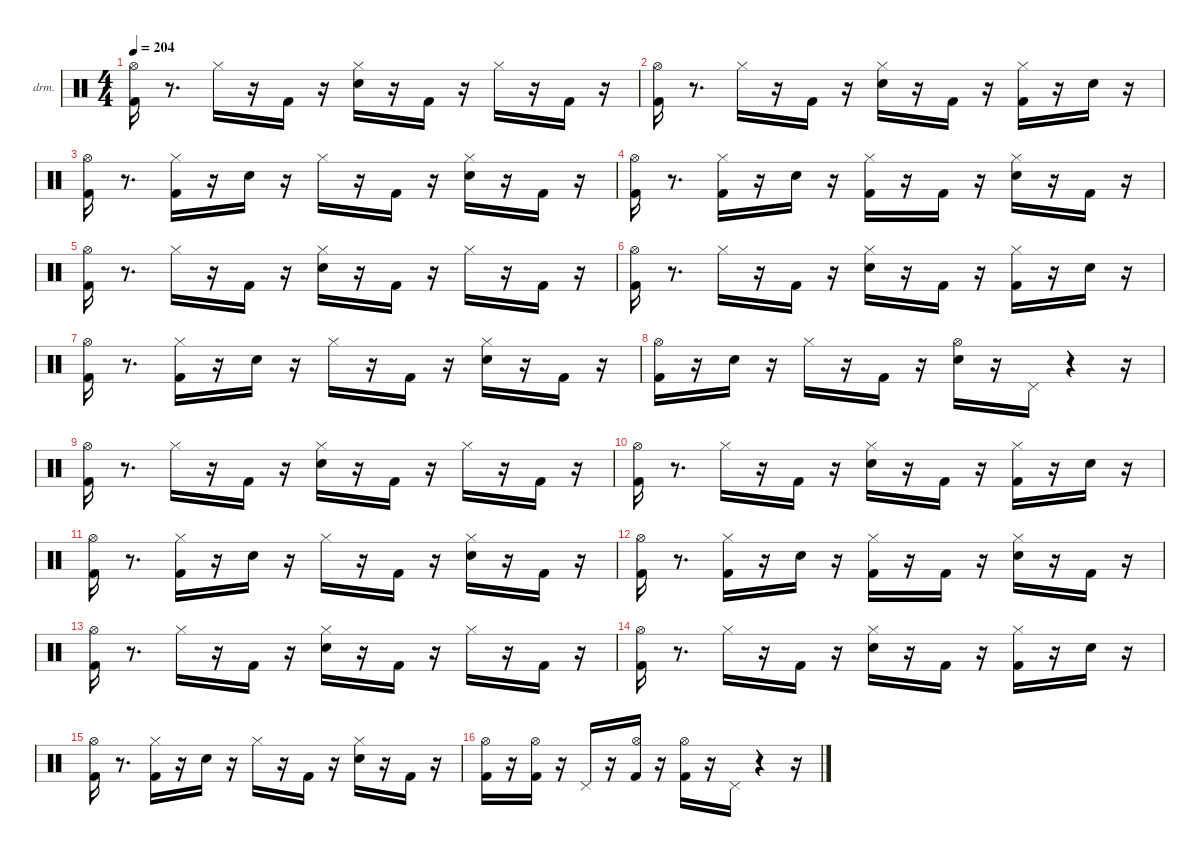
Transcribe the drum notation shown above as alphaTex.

\hideDynamics
\bracketExtendMode nobrackets
\firstSystemTrackNameOrientation horizontal
\otherSystemsTrackNameOrientation horizontal
\track ("drums" "drm.") {instrument percussion}
\staff {score}
\articulation defaults
\ts (4 4)
\tempo 204
\clef neutral
\ks aminor
("Kick (hit) 2" "Hi-Hat (open)"{acc #}).16{dy ff beam Down} r.8{d beam Down} "Hi-Hat (closed)"{acc #}.16{dy f beam Down} r.16{beam Down} "Kick (hit) 2".16{beam Up} r.16{beam Up} ("Snare (hit) 2" "Hi-Hat (closed)"{acc #}).16{dy ff beam Down} r.16{beam Down} "Kick (hit) 2".16{beam Up} r.16{beam Up} "Hi-Hat (closed)"{acc #}.16{dy f beam Down} r.16{beam Down} "Kick (hit) 2".16{dy mf beam Up} r.16{beam Up} |
("Kick (hit) 2" "Hi-Hat (open)"{acc #}).16{dy fff beam Down} r.8{d beam Down} "Hi-Hat (closed)"{acc #}.16{dy f beam Down} r.16{beam Down} "Kick (hit) 2".16{dy ff beam Up} r.16{beam Up} ("Snare (hit) 2" "Hi-Hat (closed)"{acc #}).16{beam Down} r.16{beam Down} "Kick (hit) 2".16{dy mf beam Up} r.16{beam Up} ("Kick (hit) 2" "Hi-Hat (closed)"{acc #}).16{dy fff beam Down} r.16{beam Down} "Snare (hit) 2".16{beam Down} r.16{beam Down} |
("Kick (hit) 2" "Hi-Hat (open)"{acc #}).16{dy ff beam Down} r.8{d beam Down} ("Kick (hit) 2" "Hi-Hat (closed)"{acc #}).16{beam Down} r.16{beam Down} "Snare (hit) 2".16{beam Down} r.16{beam Down} "Hi-Hat (closed)"{acc #}.16{beam Down} r.16{beam Down} "Kick (hit) 2".16{dy mf beam Up} r.16{beam Up} ("Snare (hit) 2" "Hi-Hat (closed)"{acc #}).16{dy ff beam Down} r.16{beam Down} "Kick (hit) 2".16{dy mf beam Up} r.16{beam Up} |
("Kick (hit) 2" "Hi-Hat (open)"{acc #}).16{dy fff beam Down} r.8{d beam Down} ("Kick (hit) 2" "Hi-Hat (closed)"{acc #}).16{dy ff beam Down} r.16{beam Down} "Snare (hit) 2".16{dy f beam Down} r.16{beam Down} ("Kick (hit) 2" "Hi-Hat (closed)"{acc #}).16{beam Down} r.16{beam Down} "Kick (hit) 2".16{dy ff beam Up} r.16{beam Up} ("Snare (hit) 2" "Hi-Hat (closed)"{acc #}).16{beam Down} r.16{beam Down} "Kick (hit) 2".16{dy mf beam Up} r.16{beam Up} |
("Kick (hit) 2" "Hi-Hat (open)"{acc #}).16{dy ff beam Down} r.8{d beam Down} "Hi-Hat (closed)"{acc #}.16{dy f beam Down} r.16{beam Down} "Kick (hit) 2".16{beam Up} r.16{beam Up} ("Snare (hit) 2" "Hi-Hat (closed)"{acc #}).16{dy ff beam Down} r.16{beam Down} "Kick (hit) 2".16{beam Up} r.16{beam Up} "Hi-Hat (closed)"{acc #}.16{dy f beam Down} r.16{beam Down} "Kick (hit) 2".16{dy mf beam Up} r.16{beam Up} |
("Kick (hit) 2" "Hi-Hat (open)"{acc #}).16{dy fff beam Down} r.8{d beam Down} "Hi-Hat (closed)"{acc #}.16{dy f beam Down} r.16{beam Down} "Kick (hit) 2".16{dy ff beam Up} r.16{beam Up} ("Snare (hit) 2" "Hi-Hat (closed)"{acc #}).16{beam Down} r.16{beam Down} "Kick (hit) 2".16{dy mf beam Up} r.16{beam Up} ("Kick (hit) 2" "Hi-Hat (closed)"{acc #}).16{dy fff beam Down} r.16{beam Down} "Snare (hit) 2".16{beam Down} r.16{beam Down} |
("Kick (hit) 2" "Hi-Hat (open)"{acc #}).16{dy ff beam Down} r.8{d beam Down} ("Kick (hit) 2" "Hi-Hat (closed)"{acc #}).16{beam Down} r.16{beam Down} "Snare (hit) 2".16{beam Down} r.16{beam Down} "Hi-Hat (closed)"{acc #}.16{beam Down} r.16{beam Down} "Kick (hit) 2".16{dy mf beam Up} r.16{beam Up} ("Snare (hit) 2" "Hi-Hat (closed)"{acc #}).16{dy ff beam Down} r.16{beam Down} "Kick (hit) 2".16{dy mf beam Up} r.16{beam Up} |
("Kick (hit) 2" "Hi-Hat (open)"{acc #}).16{dy fff beam Down} r.16{beam Down} "Snare (hit) 2".16{dy ff beam Down} r.16{beam Down} "Hi-Hat (closed)"{acc #}.16{dy f beam Down} r.16{beam Down} "Kick (hit) 2".16{dy ff beam Up} r.16{beam Up} ("Snare (hit) 2" "Hi-Hat (open)"{acc #}).16{beam Down} r.16{beam Down} "Pedal Hi-Hat (hit)"{acc #}.16{beam Up} r.4{beam Up} r.16{beam Up} |
("Kick (hit) 2" "Hi-Hat (open)"{acc #}).16{beam Down} r.8{d beam Down} "Hi-Hat (closed)"{acc #}.16{dy f beam Down} r.16{beam Down} "Kick (hit) 2".16{beam Up} r.16{beam Up} ("Snare (hit) 2" "Hi-Hat (closed)"{acc #}).16{dy ff beam Down} r.16{beam Down} "Kick (hit) 2".16{beam Up} r.16{beam Up} "Hi-Hat (closed)"{acc #}.16{dy f beam Down} r.16{beam Down} "Kick (hit) 2".16{dy mf beam Up} r.16{beam Up} |
("Kick (hit) 2" "Hi-Hat (open)"{acc #}).16{dy fff beam Down} r.8{d beam Down} "Hi-Hat (closed)"{acc #}.16{dy f beam Down} r.16{beam Down} "Kick (hit) 2".16{dy ff beam Up} r.16{beam Up} ("Snare (hit) 2" "Hi-Hat (closed)"{acc #}).16{beam Down} r.16{beam Down} "Kick (hit) 2".16{dy mf beam Up} r.16{beam Up} ("Kick (hit) 2" "Hi-Hat (closed)"{acc #}).16{dy fff beam Down} r.16{beam Down} "Snare (hit) 2".16{beam Down} r.16{beam Down} |
("Kick (hit) 2" "Hi-Hat (open)"{acc #}).16{dy ff beam Down} r.8{d beam Down} ("Kick (hit) 2" "Hi-Hat (closed)"{acc #}).16{beam Down} r.16{beam Down} "Snare (hit) 2".16{beam Down} r.16{beam Down} "Hi-Hat (closed)"{acc #}.16{beam Down} r.16{beam Down} "Kick (hit) 2".16{dy mf beam Up} r.16{beam Up} ("Snare (hit) 2" "Hi-Hat (closed)"{acc #}).16{dy ff beam Down} r.16{beam Down} "Kick (hit) 2".16{dy mf beam Up} r.16{beam Up} |
("Kick (hit) 2" "Hi-Hat (open)"{acc #}).16{dy fff beam Down} r.8{d beam Down} ("Kick (hit) 2" "Hi-Hat (closed)"{acc #}).16{dy ff beam Down} r.16{beam Down} "Snare (hit) 2".16{dy f beam Down} r.16{beam Down} ("Kick (hit) 2" "Hi-Hat (closed)"{acc #}).16{beam Down} r.16{beam Down} "Kick (hit) 2".16{dy ff beam Up} r.16{beam Up} ("Snare (hit) 2" "Hi-Hat (closed)"{acc #}).16{beam Down} r.16{beam Down} "Kick (hit) 2".16{dy mf beam Up} r.16{beam Up} |
("Kick (hit) 2" "Hi-Hat (open)"{acc #}).16{dy ff beam Down} r.8{d beam Down} "Hi-Hat (closed)"{acc #}.16{dy f beam Down} r.16{beam Down} "Kick (hit) 2".16{beam Up} r.16{beam Up} ("Snare (hit) 2" "Hi-Hat (closed)"{acc #}).16{dy ff beam Down} r.16{beam Down} "Kick (hit) 2".16{beam Up} r.16{beam Up} "Hi-Hat (closed)"{acc #}.16{dy f beam Down} r.16{beam Down} "Kick (hit) 2".16{dy mf beam Up} r.16{beam Up} |
("Kick (hit) 2" "Hi-Hat (open)"{acc #}).16{dy fff beam Down} r.8{d beam Down} "Hi-Hat (closed)"{acc #}.16{dy f beam Down} r.16{beam Down} "Kick (hit) 2".16{dy ff beam Up} r.16{beam Up} ("Snare (hit) 2" "Hi-Hat (closed)"{acc #}).16{beam Down} r.16{beam Down} "Kick (hit) 2".16{dy mf beam Up} r.16{beam Up} ("Kick (hit) 2" "Hi-Hat (closed)"{acc #}).16{dy fff beam Down} r.16{beam Down} "Snare (hit) 2".16{beam Down} r.16{beam Down} |
("Kick (hit) 2" "Hi-Hat (open)"{acc #}).16{dy ff beam Down} r.8{d beam Down} ("Kick (hit) 2" "Hi-Hat (closed)"{acc #}).16{beam Down} r.16{beam Down} "Snare (hit) 2".16{beam Down} r.16{beam Down} "Hi-Hat (closed)"{acc #}.16{beam Down} r.16{beam Down} "Kick (hit) 2".16{dy mf beam Up} r.16{beam Up} ("Snare (hit) 2" "Hi-Hat (closed)"{acc #}).16{dy ff beam Down} r.16{beam Down} "Kick (hit) 2".16{dy mf beam Up} r.16{beam Up} |
("Kick (hit) 2" "Hi-Hat (open)"{acc #}).16{dy f beam Down} r.16{beam Down} ("Kick (hit) 2" "Hi-Hat (open)"{acc #}).16{dy fff beam Down} r.16{beam Down} "Pedal Hi-Hat (hit)"{acc #}.16{dy ff beam Up} r.16{beam Up} ("Kick (hit) 2" "Hi-Hat (open)"{acc #}).16{dy mf beam Down} r.16{beam Down} ("Kick (hit) 2" "Hi-Hat (open)"{acc #}).16{dy ff beam Down} r.16{beam Down} "Pedal Hi-Hat (hit)"{acc #}.16{beam Up} r.4{beam Up} r.16{beam Up}
